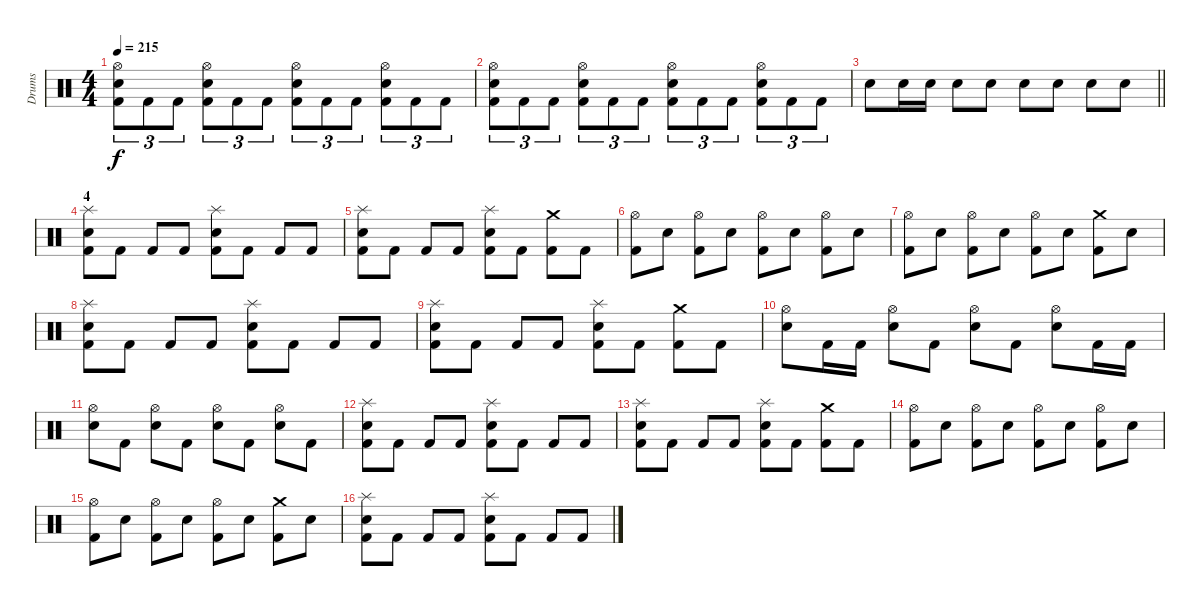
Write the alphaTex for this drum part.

\track ("Drums" "Drums") {instrument percussion}
\staff {score}
\articulation defaults
\ts (4 4)
\tempo 215
\clef neutral
\ks c
("Hi-Hat (open)" "Electric Snare (hit)" "Kick (hit) 2").8{tu (3 2) dy f} "Kick (hit) 2".8{tu (3 2)} "Kick (hit) 2".8{tu (3 2)} ("Hi-Hat (open)" "Electric Snare (hit)" "Kick (hit) 2").8{tu (3 2)} "Kick (hit) 2".8{tu (3 2)} "Kick (hit) 2".8{tu (3 2)} ("Hi-Hat (open)" "Electric Snare (hit)" "Kick (hit) 2").8{tu (3 2)} "Kick (hit) 2".8{tu (3 2)} "Kick (hit) 2".8{tu (3 2)} ("Hi-Hat (open)" "Electric Snare (hit)" "Kick (hit) 2").8{tu (3 2)} "Kick (hit) 2".8{tu (3 2)} "Kick (hit) 2".8{tu (3 2)} |
("Hi-Hat (open)" "Electric Snare (hit)" "Kick (hit) 2").8{tu (3 2)} "Kick (hit) 2".8{tu (3 2)} "Kick (hit) 2".8{tu (3 2)} ("Hi-Hat (open)" "Electric Snare (hit)" "Kick (hit) 2").8{tu (3 2)} "Kick (hit) 2".8{tu (3 2)} "Kick (hit) 2".8{tu (3 2)} ("Hi-Hat (open)" "Electric Snare (hit)" "Kick (hit) 2").8{tu (3 2)} "Kick (hit) 2".8{tu (3 2)} "Kick (hit) 2".8{tu (3 2)} ("Hi-Hat (open)" "Electric Snare (hit)" "Kick (hit) 2").8{tu (3 2)} "Kick (hit) 2".8{tu (3 2)} "Kick (hit) 2".8{tu (3 2)} |
\barLineRight lightlight "Electric Snare (hit)".8 "Electric Snare (hit)".16 "Electric Snare (hit)".16 "Electric Snare (hit)".8 "Electric Snare (hit)".8 "Electric Snare (hit)".8 "Electric Snare (hit)".8 "Electric Snare (hit)".8 "Electric Snare (hit)".8
|
\section ("" "4")
("Splash (hit)" "Electric Snare (hit)" "Kick (hit) 2").8 "Kick (hit) 2".8 "Kick (hit) 2".8 "Kick (hit) 2".8 ("Splash (hit)" "Electric Snare (hit)" "Kick (hit) 2").8 "Kick (hit) 2".8 "Kick (hit) 2".8 "Kick (hit) 2".8 |
("Splash (hit)" "Electric Snare (hit)" "Kick (hit) 2").8 "Kick (hit) 2".8 "Kick (hit) 2".8 "Kick (hit) 2".8 ("Splash (hit)" "Electric Snare (hit)" "Kick (hit) 2").8 "Kick (hit) 2".8 ("Crash medium (hit)" "Kick (hit) 2").8 "Kick (hit) 2".8 |
("Hi-Hat (open)" "Kick (hit) 2").8 "Electric Snare (hit)".8 ("Hi-Hat (open)" "Kick (hit) 2").8 "Electric Snare (hit)".8 ("Hi-Hat (open)" "Kick (hit) 2").8 "Electric Snare (hit)".8 ("Hi-Hat (open)" "Kick (hit) 2").8 "Electric Snare (hit)".8 |
("Hi-Hat (open)" "Kick (hit) 2").8 "Electric Snare (hit)".8 ("Hi-Hat (open)" "Kick (hit) 2").8 "Electric Snare (hit)".8 ("Hi-Hat (open)" "Kick (hit) 2").8 "Electric Snare (hit)".8 ("Crash medium (hit)" "Kick (hit) 2").8 "Electric Snare (hit)".8 |
("Splash (hit)" "Electric Snare (hit)" "Kick (hit) 2").8 "Kick (hit) 2".8 "Kick (hit) 2".8 "Kick (hit) 2".8 ("Splash (hit)" "Electric Snare (hit)" "Kick (hit) 2").8 "Kick (hit) 2".8 "Kick (hit) 2".8 "Kick (hit) 2".8 |
("Splash (hit)" "Electric Snare (hit)" "Kick (hit) 2").8 "Kick (hit) 2".8 "Kick (hit) 2".8 "Kick (hit) 2".8 ("Splash (hit)" "Electric Snare (hit)" "Kick (hit) 2").8 "Kick (hit) 2".8 ("Crash medium (hit)" "Kick (hit) 2").8 "Kick (hit) 2".8 |
("Hi-Hat (open)" "Electric Snare (hit)").8 "Kick (hit) 2".16 "Kick (hit) 2".16 ("Hi-Hat (open)" "Electric Snare (hit)").8 "Kick (hit) 2".8 ("Hi-Hat (open)" "Electric Snare (hit)").8 "Kick (hit) 2".8 ("Hi-Hat (open)" "Electric Snare (hit)").8 "Kick (hit) 2".16 "Kick (hit) 2".16 |
("Hi-Hat (open)" "Electric Snare (hit)").8 "Kick (hit) 2".8 ("Hi-Hat (open)" "Electric Snare (hit)").8 "Kick (hit) 2".8 ("Hi-Hat (open)" "Electric Snare (hit)").8 "Kick (hit) 2".8 ("Hi-Hat (open)" "Electric Snare (hit)").8 "Kick (hit) 2".8 |
("Splash (hit)" "Electric Snare (hit)" "Kick (hit) 2").8 "Kick (hit) 2".8 "Kick (hit) 2".8 "Kick (hit) 2".8 ("Splash (hit)" "Electric Snare (hit)" "Kick (hit) 2").8 "Kick (hit) 2".8 "Kick (hit) 2".8 "Kick (hit) 2".8 |
("Splash (hit)" "Electric Snare (hit)" "Kick (hit) 2").8 "Kick (hit) 2".8 "Kick (hit) 2".8 "Kick (hit) 2".8 ("Splash (hit)" "Electric Snare (hit)" "Kick (hit) 2").8 "Kick (hit) 2".8 ("Crash medium (hit)" "Kick (hit) 2").8 "Kick (hit) 2".8 |
("Hi-Hat (open)" "Kick (hit) 2").8 "Electric Snare (hit)".8 ("Hi-Hat (open)" "Kick (hit) 2").8 "Electric Snare (hit)".8 ("Hi-Hat (open)" "Kick (hit) 2").8 "Electric Snare (hit)".8 ("Hi-Hat (open)" "Kick (hit) 2").8 "Electric Snare (hit)".8 |
("Hi-Hat (open)" "Kick (hit) 2").8 "Electric Snare (hit)".8 ("Hi-Hat (open)" "Kick (hit) 2").8 "Electric Snare (hit)".8 ("Hi-Hat (open)" "Kick (hit) 2").8 "Electric Snare (hit)".8 ("Crash medium (hit)" "Kick (hit) 2").8 "Electric Snare (hit)".8 |
("Splash (hit)" "Electric Snare (hit)" "Kick (hit) 2").8 "Kick (hit) 2".8 "Kick (hit) 2".8 "Kick (hit) 2".8 ("Splash (hit)" "Electric Snare (hit)" "Kick (hit) 2").8 "Kick (hit) 2".8 "Kick (hit) 2".8 "Kick (hit) 2".8
